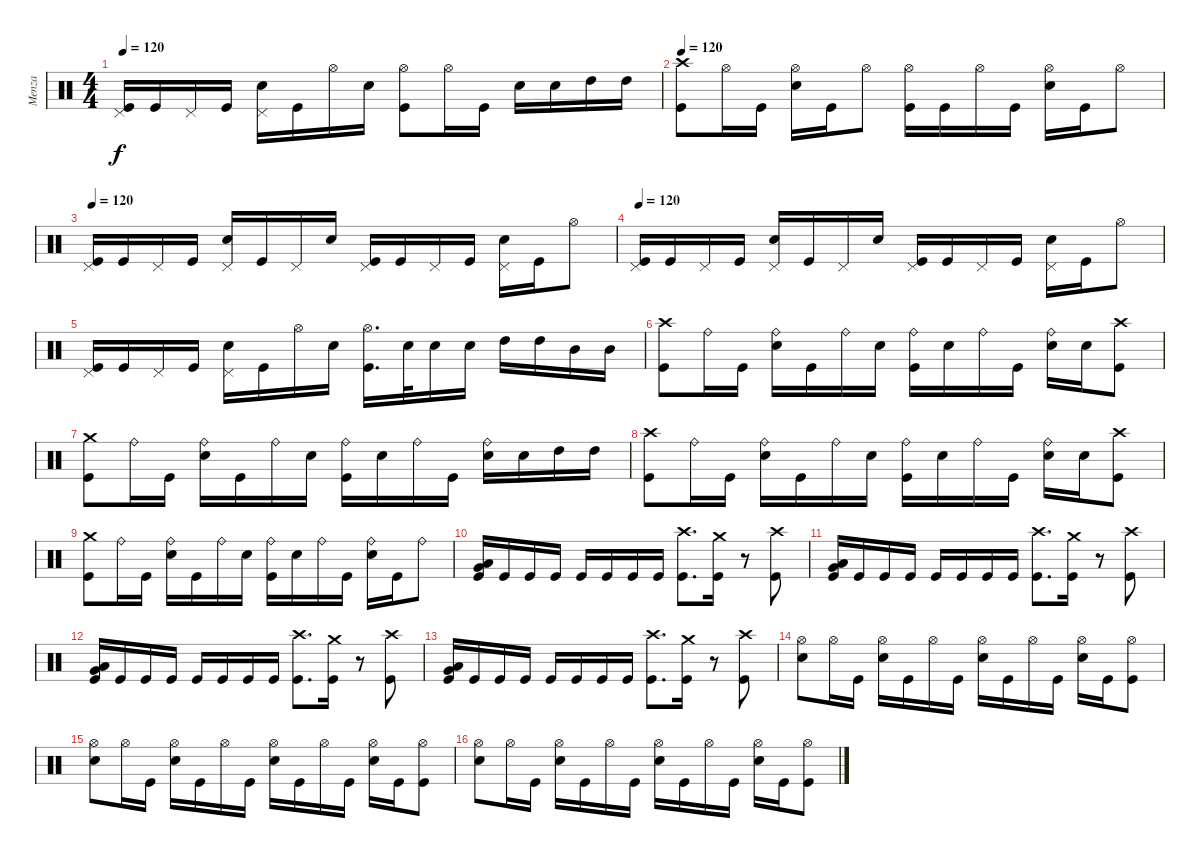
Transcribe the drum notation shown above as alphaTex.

\track ("Menza" "Menza") {instrument percussion}
\staff {score}
\articulation defaults
\ts (4 4)
\tempo 120
\clef neutral
\ks c
("Pedal Hi-Hat (hit)" "Kick (hit)").16{dy f} "Kick (hit)".16 "Pedal Hi-Hat (hit)".16 "Kick (hit)".16 ("Pedal Hi-Hat (hit)" "Snare (hit) 2").16 "Kick (hit)".16 "Hi-Hat (open)".16 "Snare (hit) 2".16 ("Hi-Hat (open)" "Kick (hit)").8 "Hi-Hat (open)".16 "Kick (hit)".16 "Snare (hit) 2".16 "Snare (hit) 2".16 "High Tom (hit)".16 "High Tom (hit)".16 |
\tempo 120
("Crash high (hit)" "Kick (hit)").8 "Hi-Hat (open)".16 "Kick (hit)".16 ("Hi-Hat (open)" "Snare (hit) 2").16 "Kick (hit)".16 "Hi-Hat (open)".8 ("Hi-Hat (open)" "Kick (hit)").16 "Kick (hit)".16 "Hi-Hat (open)".16 "Kick (hit)".16 ("Hi-Hat (open)" "Snare (hit) 2").16 "Kick (hit)".16 "Hi-Hat (open)".8 |
\tempo 120
("Pedal Hi-Hat (hit)" "Kick (hit)").16 "Kick (hit)".16 "Pedal Hi-Hat (hit)".16 "Kick (hit)".16 ("Pedal Hi-Hat (hit)" "Snare (hit) 2").16 "Kick (hit)".16 "Pedal Hi-Hat (hit)".16 "Snare (hit) 2".16 ("Pedal Hi-Hat (hit)" "Kick (hit)").16 "Kick (hit)".16 "Pedal Hi-Hat (hit)".16 "Kick (hit)".16 ("Pedal Hi-Hat (hit)" "Snare (hit) 2").16 "Kick (hit)".16 "Hi-Hat (open)".8 |
\tempo 120
("Pedal Hi-Hat (hit)" "Kick (hit)").16 "Kick (hit)".16 "Pedal Hi-Hat (hit)".16 "Kick (hit)".16 ("Pedal Hi-Hat (hit)" "Snare (hit) 2").16 "Kick (hit)".16 "Pedal Hi-Hat (hit)".16 "Snare (hit) 2".16 ("Pedal Hi-Hat (hit)" "Kick (hit)").16 "Kick (hit)".16 "Pedal Hi-Hat (hit)".16 "Kick (hit)".16 ("Pedal Hi-Hat (hit)" "Snare (hit) 2").16 "Kick (hit)".16 "Hi-Hat (open)".8 |
("Pedal Hi-Hat (hit)" "Kick (hit)").16 "Kick (hit)".16 "Pedal Hi-Hat (hit)".16 "Kick (hit)".16 ("Pedal Hi-Hat (hit)" "Snare (hit) 2").16 "Kick (hit)".16 "Hi-Hat (open)".16 "Snare (hit) 2".16 ("Hi-Hat (open)" "Kick (hit)").16{d} "Snare (hit) 2".32 "Snare (hit) 2".16 "Snare (hit) 2".16 "High Tom (hit)".16 "High Tom (hit)".16 "Mid Tom (hit)".16 "Mid Tom (hit)".16 |
("Crash high (hit)" "Kick (hit)").8 "Ride (bell)".16 "Kick (hit)".16 ("Ride (bell)" "Snare (hit) 2").16 "Kick (hit)".16 "Ride (bell)".16 "Snare (hit) 2".16 ("Ride (bell)" "Kick (hit)").16 "Snare (hit) 2".16 "Ride (bell)".16 "Kick (hit)".16 ("Ride (bell)" "Snare (hit) 2").16 "Snare (hit) 2".16 ("Crash high (hit)" "Kick (hit)").8 |
("Crash medium (hit)" "Kick (hit)").8 "Ride (bell)".16 "Kick (hit)".16 ("Ride (bell)" "Snare (hit) 2").16 "Kick (hit)".16 "Ride (bell)".16 "Snare (hit) 2".16 ("Ride (bell)" "Kick (hit)").16 "Snare (hit) 2".16 "Ride (bell)".16 "Kick (hit)".16 ("Ride (bell)" "Snare (hit) 2").16 "Snare (hit) 2".16 "High Tom (hit)".16 "High Tom (hit)".16 |
("Crash high (hit)" "Kick (hit)").8 "Ride (bell)".16 "Kick (hit)".16 ("Ride (bell)" "Snare (hit) 2").16 "Kick (hit)".16 "Ride (bell)".16 "Snare (hit) 2".16 ("Ride (bell)" "Kick (hit)").16 "Snare (hit) 2".16 "Ride (bell)".16 "Kick (hit)".16 ("Ride (bell)" "Snare (hit) 2").16 "Snare (hit) 2".16 ("Crash high (hit)" "Kick (hit)").8 |
("Crash medium (hit)" "Kick (hit)").8 "Ride (bell)".16 "Kick (hit)".16 ("Ride (bell)" "Snare (hit) 2").16 "Kick (hit)".16 "Ride (bell)".16 "Snare (hit) 2".16 ("Ride (bell)" "Kick (hit)").16 "Snare (hit) 2".16 "Ride (bell)".16 "Kick (hit)".16 ("Ride (bell)" "Snare (hit) 2").16 "Kick (hit)".16 "Ride (bell)".8 |
("Very Low Tom (hit)" "Low Floor Tom (hit)" "Kick (hit)").16 "Kick (hit)".16 "Kick (hit)".16 "Kick (hit)".16 "Kick (hit)".16 "Kick (hit)".16 "Kick (hit)".16 "Kick (hit)".16 ("Crash high (hit)" "Kick (hit)").8{d} ("Crash medium (hit)" "Kick (hit)").16 r.8 ("Crash high (hit)" "Kick (hit)").8 |
("Very Low Tom (hit)" "Low Floor Tom (hit)" "Kick (hit)").16 "Kick (hit)".16 "Kick (hit)".16 "Kick (hit)".16 "Kick (hit)".16 "Kick (hit)".16 "Kick (hit)".16 "Kick (hit)".16 ("Crash high (hit)" "Kick (hit)").8{d} ("Crash medium (hit)" "Kick (hit)").16 r.8 ("Crash high (hit)" "Kick (hit)").8 |
("Very Low Tom (hit)" "Low Floor Tom (hit)" "Kick (hit)").16 "Kick (hit)".16 "Kick (hit)".16 "Kick (hit)".16 "Kick (hit)".16 "Kick (hit)".16 "Kick (hit)".16 "Kick (hit)".16 ("Crash high (hit)" "Kick (hit)").8{d} ("Crash medium (hit)" "Kick (hit)").16 r.8 ("Crash high (hit)" "Kick (hit)").8 |
("Very Low Tom (hit)" "Low Floor Tom (hit)" "Kick (hit)").16 "Kick (hit)".16 "Kick (hit)".16 "Kick (hit)".16 "Kick (hit)".16 "Kick (hit)".16 "Kick (hit)".16 "Kick (hit)".16 ("Crash high (hit)" "Kick (hit)").8{d} ("Crash medium (hit)" "Kick (hit)").16 r.8 ("Crash high (hit)" "Kick (hit)").8 |
("Hi-Hat (open)" "Snare (hit) 2").8 "Hi-Hat (open)".16 "Kick (hit)".16 ("Hi-Hat (open)" "Snare (hit) 2").16 "Kick (hit)".16 "Hi-Hat (open)".16 "Kick (hit)".16 ("Hi-Hat (open)" "Snare (hit) 2").16 "Kick (hit)".16 "Hi-Hat (open)".16 "Kick (hit)".16 ("Hi-Hat (open)" "Snare (hit) 2").16 "Kick (hit)".16 ("Hi-Hat (open)" "Kick (hit)").8 |
("Hi-Hat (open)" "Snare (hit) 2").8 "Hi-Hat (open)".16 "Kick (hit)".16 ("Hi-Hat (open)" "Snare (hit) 2").16 "Kick (hit)".16 "Hi-Hat (open)".16 "Kick (hit)".16 ("Hi-Hat (open)" "Snare (hit) 2").16 "Kick (hit)".16 "Hi-Hat (open)".16 "Kick (hit)".16 ("Hi-Hat (open)" "Snare (hit) 2").16 "Kick (hit)".16 ("Hi-Hat (open)" "Kick (hit)").8 |
("Hi-Hat (open)" "Snare (hit) 2").8 "Hi-Hat (open)".16 "Kick (hit)".16 ("Hi-Hat (open)" "Snare (hit) 2").16 "Kick (hit)".16 "Hi-Hat (open)".16 "Kick (hit)".16 ("Hi-Hat (open)" "Snare (hit) 2").16 "Kick (hit)".16 "Hi-Hat (open)".16 "Kick (hit)".16 ("Hi-Hat (open)" "Snare (hit) 2").16 "Kick (hit)".16 ("Hi-Hat (open)" "Kick (hit)").8
